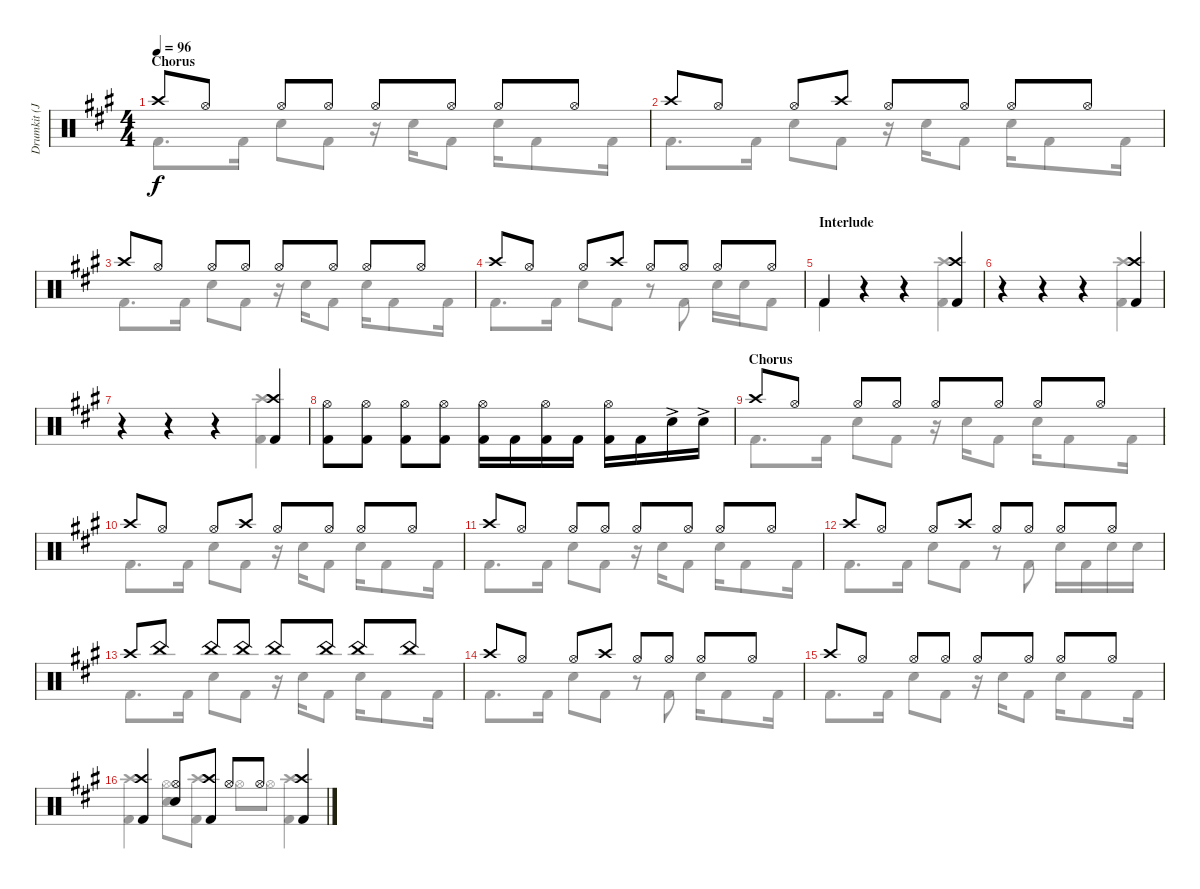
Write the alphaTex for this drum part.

\track ("Drumkit (John Otto)" "Drumkit (J") {instrument percussion}
\staff {score}
\articulation defaults
\voice
\ts (4 4)
\section ("" "Chorus")
\tempo 96
\clef neutral
\ks a "Crash high (hit)".8{dy f} "Hi-Hat (open)".8 "Hi-Hat (open)".8 "Hi-Hat (open)".8 "Hi-Hat (open)".8 "Hi-Hat (open)".8 "Hi-Hat (open)".8 "Hi-Hat (open)".8
|
"Crash high (hit)".8 "Hi-Hat (open)".8 "Hi-Hat (open)".8 "Crash high (hit)".8 "Hi-Hat (open)".8 "Hi-Hat (open)".8 "Hi-Hat (open)".8 "Hi-Hat (open)".8 |
"Crash high (hit)".8 "Hi-Hat (open)".8 "Hi-Hat (open)".8 "Hi-Hat (open)".8 "Hi-Hat (open)".8 "Hi-Hat (open)".8 "Hi-Hat (open)".8 "Hi-Hat (open)".8 |
"Crash high (hit)".8 "Hi-Hat (open)".8 "Hi-Hat (open)".8 "Crash high (hit)".8 "Hi-Hat (open)".8 "Hi-Hat (open)".8 "Hi-Hat (open)".8 "Hi-Hat (open)".8 |
\section ("" "Interlude")
"Kick (hit) 2".4 r.4 r.4 ("Crash high (hit)" "Kick (hit) 2").4 |
r.4 r.4 r.4 ("Crash high (hit)" "Kick (hit) 2").4 |
r.4 r.4 r.4 ("Crash high (hit)" "Kick (hit) 2").4 |
("Hi-Hat (open)" "Kick (hit) 2").8 ("Hi-Hat (open)" "Kick (hit) 2").8 ("Hi-Hat (open)" "Kick (hit) 2").8 ("Hi-Hat (open)" "Kick (hit) 2").8 ("Hi-Hat (open)" "Kick (hit) 2").16 "Kick (hit) 2".16 ("Hi-Hat (open)" "Kick (hit) 2").16 "Kick (hit) 2".16 ("Hi-Hat (open)" "Kick (hit) 2").16 "Kick (hit) 2".16 "Snare (hit) 2"{ac}.16 "Snare (hit) 2"{ac}.16 |
\section ("" "Chorus")
"Crash high (hit)".8 "Hi-Hat (open)".8 "Hi-Hat (open)".8 "Hi-Hat (open)".8 "Hi-Hat (open)".8 "Hi-Hat (open)".8 "Hi-Hat (open)".8 "Hi-Hat (open)".8 |
"Crash high (hit)".8 "Hi-Hat (open)".8 "Hi-Hat (open)".8 "Crash high (hit)".8 "Hi-Hat (open)".8 "Hi-Hat (open)".8 "Hi-Hat (open)".8 "Hi-Hat (open)".8 |
"Crash high (hit)".8 "Hi-Hat (open)".8 "Hi-Hat (open)".8 "Hi-Hat (open)".8 "Hi-Hat (open)".8 "Hi-Hat (open)".8 "Hi-Hat (open)".8 "Hi-Hat (open)".8 |
"Crash high (hit)".8 "Hi-Hat (open)".8 "Hi-Hat (open)".8 "Crash high (hit)".8 "Hi-Hat (open)".8 "Hi-Hat (open)".8 "Hi-Hat (open)".8 "Hi-Hat (open)".8 |
"Crash high (hit)".8 "China (hit)".8 "China (hit)".8 "China (hit)".8 "China (hit)".8 "China (hit)".8 "China (hit)".8 "China (hit)".8 |
"Crash high (hit)".8 "Hi-Hat (open)".8 "Hi-Hat (open)".8 "Crash high (hit)".8 "Hi-Hat (open)".8 "Hi-Hat (open)".8 "Hi-Hat (open)".8 "Hi-Hat (open)".8 |
"Crash high (hit)".8 "Hi-Hat (open)".8 "Hi-Hat (open)".8 "Hi-Hat (open)".8 "Hi-Hat (open)".8 "Hi-Hat (open)".8 "Hi-Hat (open)".8 "Hi-Hat (open)".8 |
("Crash high (hit)" "Kick (hit) 2").4 ("Hi-Hat (open)" "Snare (hit) 2").8 ("Crash high (hit)" "Kick (hit) 2").8 "Hi-Hat (open)".8 "Hi-Hat (open)".8 ("Crash high (hit)" "Kick (hit) 2").4
\voice
\clef neutral
\ottava regular
\simile none
\ks a "Kick (hit) 2".8{d dy f} "Kick (hit) 2".16 "Snare (hit) 2".8 "Kick (hit) 2".8
r.16 "Snare (hit) 2".16 "Kick (hit) 2".8 "Snare (hit) 2".16 "Kick (hit) 2".8 "Kick (hit) 2".16 |
"Kick (hit) 2".8{d} "Kick (hit) 2".16 "Snare (hit) 2".8 "Kick (hit) 2".8 r.16 "Snare (hit) 2".16 "Kick (hit) 2".8 "Snare (hit) 2".16 "Kick (hit) 2".8 "Kick (hit) 2".16 |
"Kick (hit) 2".8{d} "Kick (hit) 2".16 "Snare (hit) 2".8 "Kick (hit) 2".8 r.16 "Snare (hit) 2".16 "Kick (hit) 2".8 "Snare (hit) 2".16 "Kick (hit) 2".8 "Kick (hit) 2".16 |
"Kick (hit) 2".8{d} "Kick (hit) 2".16 "Snare (hit) 2".8 "Kick (hit) 2".8 r.8 "Kick (hit) 2".8 "Snare (hit) 2".16 "Snare (hit) 2".16 "Kick (hit) 2".8 |
"Kick (hit) 2".4 r.4 r.4 ("Crash high (hit)" "Kick (hit) 2").4 |
r.4 r.4 r.4 ("Crash high (hit)" "Kick (hit) 2").4 |
r.4 r.4 r.4 ("Crash high (hit)" "Kick (hit) 2").4 |
|
"Kick (hit) 2".8{d} "Kick (hit) 2".16 "Snare (hit) 2".8 "Kick (hit) 2".8 r.16 "Snare (hit) 2".16 "Kick (hit) 2".8 "Snare (hit) 2".16 "Kick (hit) 2".8 "Kick (hit) 2".16 |
"Kick (hit) 2".8{d} "Kick (hit) 2".16 "Snare (hit) 2".8 "Kick (hit) 2".8 r.16 "Snare (hit) 2".16 "Kick (hit) 2".8 "Snare (hit) 2".16 "Kick (hit) 2".8 "Kick (hit) 2".16 |
"Kick (hit) 2".8{d} "Kick (hit) 2".16 "Snare (hit) 2".8 "Kick (hit) 2".8 r.16 "Snare (hit) 2".16 "Kick (hit) 2".8 "Snare (hit) 2".16 "Kick (hit) 2".8 "Kick (hit) 2".16 |
"Kick (hit) 2".8{d} "Kick (hit) 2".16 "Snare (hit) 2".8 "Kick (hit) 2".8 r.8 "Kick (hit) 2".8 "Snare (hit) 2".16 "Kick (hit) 2".16 "Snare (hit) 2".16 "Snare (hit) 2".16 |
"Kick (hit) 2".8{d} "Kick (hit) 2".16 "Snare (hit) 2".8 "Kick (hit) 2".8 r.16 "Snare (hit) 2".16 "Kick (hit) 2".8 "Snare (hit) 2".16 "Kick (hit) 2".8 "Kick (hit) 2".16 |
"Kick (hit) 2".8{d} "Kick (hit) 2".16 "Snare (hit) 2".8 "Kick (hit) 2".8 r.8 "Kick (hit) 2".8 "Snare (hit) 2".16 "Kick (hit) 2".8 "Kick (hit) 2".16 |
"Kick (hit) 2".8{d} "Kick (hit) 2".16 "Snare (hit) 2".8 "Kick (hit) 2".8 r.16 "Snare (hit) 2".16 "Kick (hit) 2".8 "Snare (hit) 2".16 "Kick (hit) 2".8 "Kick (hit) 2".16 |
("Crash high (hit)" "Kick (hit) 2").4 ("Hi-Hat (open)" "Snare (hit) 2").8 ("Crash high (hit)" "Kick (hit) 2").8 "Hi-Hat (open)".8 "Hi-Hat (open)".8 ("Crash high (hit)" "Kick (hit) 2").4
